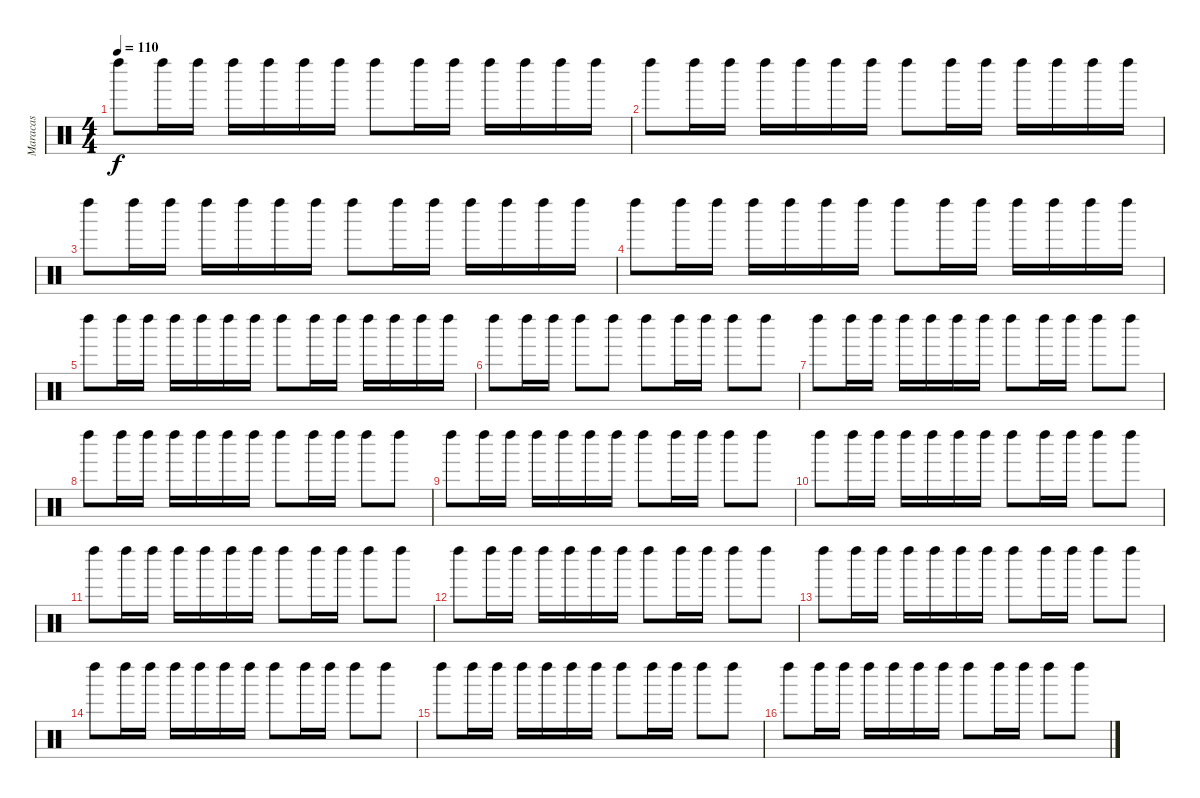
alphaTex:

\track ("Maracas" "Maracas") {instrument percussion}
\staff {score}
\articulation defaults
\ts (4 4)
\tempo 110
\clef neutral
\ks c "Left Maraca (hit)".8{dy f} "Left Maraca (hit)".16 "Left Maraca (hit)".16 "Left Maraca (hit)".16 "Left Maraca (hit)".16 "Left Maraca (hit)".16 "Left Maraca (hit)".16 "Left Maraca (hit)".8 "Left Maraca (hit)".16 "Left Maraca (hit)".16 "Left Maraca (hit)".16 "Left Maraca (hit)".16 "Left Maraca (hit)".16 "Left Maraca (hit)".16
|
"Left Maraca (hit)".8 "Left Maraca (hit)".16 "Left Maraca (hit)".16 "Left Maraca (hit)".16 "Left Maraca (hit)".16 "Left Maraca (hit)".16 "Left Maraca (hit)".16 "Left Maraca (hit)".8 "Left Maraca (hit)".16 "Left Maraca (hit)".16 "Left Maraca (hit)".16 "Left Maraca (hit)".16 "Left Maraca (hit)".16 "Left Maraca (hit)".16 |
"Left Maraca (hit)".8 "Left Maraca (hit)".16 "Left Maraca (hit)".16 "Left Maraca (hit)".16 "Left Maraca (hit)".16 "Left Maraca (hit)".16 "Left Maraca (hit)".16 "Left Maraca (hit)".8 "Left Maraca (hit)".16 "Left Maraca (hit)".16 "Left Maraca (hit)".16 "Left Maraca (hit)".16 "Left Maraca (hit)".16 "Left Maraca (hit)".16 |
"Left Maraca (hit)".8 "Left Maraca (hit)".16 "Left Maraca (hit)".16 "Left Maraca (hit)".16 "Left Maraca (hit)".16 "Left Maraca (hit)".16 "Left Maraca (hit)".16 "Left Maraca (hit)".8 "Left Maraca (hit)".16 "Left Maraca (hit)".16 "Left Maraca (hit)".16 "Left Maraca (hit)".16 "Left Maraca (hit)".16 "Left Maraca (hit)".16 |
"Left Maraca (hit)".8 "Left Maraca (hit)".16 "Left Maraca (hit)".16 "Left Maraca (hit)".16 "Left Maraca (hit)".16 "Left Maraca (hit)".16 "Left Maraca (hit)".16 "Left Maraca (hit)".8 "Left Maraca (hit)".16 "Left Maraca (hit)".16 "Left Maraca (hit)".16 "Left Maraca (hit)".16 "Left Maraca (hit)".16 "Left Maraca (hit)".16 |
"Left Maraca (hit)".8 "Left Maraca (hit)".16 "Left Maraca (hit)".16 "Left Maraca (hit)".8 "Left Maraca (hit)".8 "Left Maraca (hit)".8 "Left Maraca (hit)".16 "Left Maraca (hit)".16 "Left Maraca (hit)".8 "Left Maraca (hit)".8 |
"Left Maraca (hit)".8 "Left Maraca (hit)".16 "Left Maraca (hit)".16 "Left Maraca (hit)".16 "Left Maraca (hit)".16 "Left Maraca (hit)".16 "Left Maraca (hit)".16 "Left Maraca (hit)".8 "Left Maraca (hit)".16 "Left Maraca (hit)".16 "Left Maraca (hit)".8 "Left Maraca (hit)".8 |
"Left Maraca (hit)".8 "Left Maraca (hit)".16 "Left Maraca (hit)".16 "Left Maraca (hit)".16 "Left Maraca (hit)".16 "Left Maraca (hit)".16 "Left Maraca (hit)".16 "Left Maraca (hit)".8 "Left Maraca (hit)".16 "Left Maraca (hit)".16 "Left Maraca (hit)".8 "Left Maraca (hit)".8 |
"Left Maraca (hit)".8 "Left Maraca (hit)".16 "Left Maraca (hit)".16 "Left Maraca (hit)".16 "Left Maraca (hit)".16 "Left Maraca (hit)".16 "Left Maraca (hit)".16 "Left Maraca (hit)".8 "Left Maraca (hit)".16 "Left Maraca (hit)".16 "Left Maraca (hit)".8 "Left Maraca (hit)".8 |
"Left Maraca (hit)".8 "Left Maraca (hit)".16 "Left Maraca (hit)".16 "Left Maraca (hit)".16 "Left Maraca (hit)".16 "Left Maraca (hit)".16 "Left Maraca (hit)".16 "Left Maraca (hit)".8 "Left Maraca (hit)".16 "Left Maraca (hit)".16 "Left Maraca (hit)".8 "Left Maraca (hit)".8 |
"Left Maraca (hit)".8 "Left Maraca (hit)".16 "Left Maraca (hit)".16 "Left Maraca (hit)".16 "Left Maraca (hit)".16 "Left Maraca (hit)".16 "Left Maraca (hit)".16 "Left Maraca (hit)".8 "Left Maraca (hit)".16 "Left Maraca (hit)".16 "Left Maraca (hit)".8 "Left Maraca (hit)".8 |
"Left Maraca (hit)".8 "Left Maraca (hit)".16 "Left Maraca (hit)".16 "Left Maraca (hit)".16 "Left Maraca (hit)".16 "Left Maraca (hit)".16 "Left Maraca (hit)".16 "Left Maraca (hit)".8 "Left Maraca (hit)".16 "Left Maraca (hit)".16 "Left Maraca (hit)".8 "Left Maraca (hit)".8 |
"Left Maraca (hit)".8 "Left Maraca (hit)".16 "Left Maraca (hit)".16 "Left Maraca (hit)".16 "Left Maraca (hit)".16 "Left Maraca (hit)".16 "Left Maraca (hit)".16 "Left Maraca (hit)".8 "Left Maraca (hit)".16 "Left Maraca (hit)".16 "Left Maraca (hit)".8 "Left Maraca (hit)".8 |
"Left Maraca (hit)".8 "Left Maraca (hit)".16 "Left Maraca (hit)".16 "Left Maraca (hit)".16 "Left Maraca (hit)".16 "Left Maraca (hit)".16 "Left Maraca (hit)".16 "Left Maraca (hit)".8 "Left Maraca (hit)".16 "Left Maraca (hit)".16 "Left Maraca (hit)".8 "Left Maraca (hit)".8 |
"Left Maraca (hit)".8 "Left Maraca (hit)".16 "Left Maraca (hit)".16 "Left Maraca (hit)".16 "Left Maraca (hit)".16 "Left Maraca (hit)".16 "Left Maraca (hit)".16 "Left Maraca (hit)".8 "Left Maraca (hit)".16 "Left Maraca (hit)".16 "Left Maraca (hit)".8 "Left Maraca (hit)".8 |
"Left Maraca (hit)".8 "Left Maraca (hit)".16 "Left Maraca (hit)".16 "Left Maraca (hit)".16 "Left Maraca (hit)".16 "Left Maraca (hit)".16 "Left Maraca (hit)".16 "Left Maraca (hit)".8 "Left Maraca (hit)".16 "Left Maraca (hit)".16 "Left Maraca (hit)".8 "Left Maraca (hit)".8
